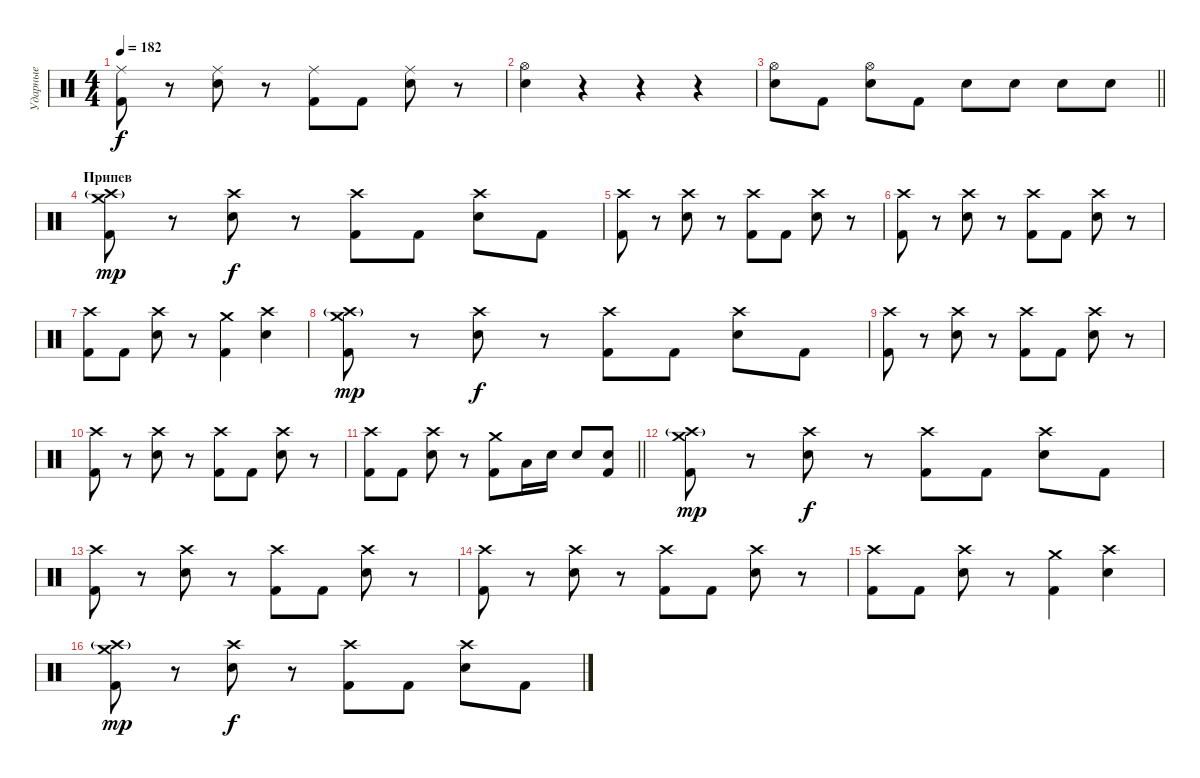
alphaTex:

\track ("Ударные" "Ударные") {instrument percussion}
\staff {score}
\articulation defaults
\ts (4 4)
\tempo 182
\clef neutral
\ks c
("Ride (middle)" "Kick (hit) 2").8{dy f} r.8 ("Ride (middle)" "Snare (hit) 2").8 r.8 ("Ride (middle)" "Kick (hit) 2").8 "Kick (hit) 2".8 ("Ride (middle)" "Snare (hit) 2").8 r.8 |
("Hi-Hat (open)" "Snare (hit) 2").4 r.4 r.4 r.4 |
\barLineRight lightlight
("Hi-Hat (open)" "Snare (hit) 2").8 "Kick (hit) 2".8 ("Hi-Hat (open)" "Snare (hit) 2").8 "Kick (hit) 2".8 "Snare (hit) 2".8 "Snare (hit) 2".8 "Snare (hit) 2".8 "Snare (hit) 2".8 |
\section ("" "Припев")
("Crash medium (hit)" "Crash high (hit)"{g} "Kick (hit) 2").8{dy mp} r.8 ("Crash high (hit)" "Snare (hit) 2").8{dy f} r.8 ("Crash high (hit)" "Kick (hit) 2").8 "Kick (hit) 2".8 ("Crash high (hit)" "Snare (hit) 2").8 "Kick (hit) 2".8 |
("Crash high (hit)" "Kick (hit) 2").8 r.8 ("Crash high (hit)" "Snare (hit) 2").8 r.8 ("Crash high (hit)" "Kick (hit) 2").8 "Kick (hit) 2".8 ("Crash high (hit)" "Snare (hit) 2").8 r.8 |
("Crash high (hit)" "Kick (hit) 2").8 r.8 ("Crash high (hit)" "Snare (hit) 2").8 r.8 ("Crash high (hit)" "Kick (hit) 2").8 "Kick (hit) 2".8 ("Crash high (hit)" "Snare (hit) 2").8 r.8 |
("Crash high (hit)" "Kick (hit) 2").8 "Kick (hit) 2".8 ("Crash high (hit)" "Snare (hit) 2").8 r.8 ("Crash medium (hit)" "Kick (hit) 2").4 ("Crash high (hit)" "Snare (hit) 2").4 |
("Crash medium (hit)" "Crash high (hit)"{g} "Kick (hit) 2").8{dy mp} r.8 ("Crash high (hit)" "Snare (hit) 2").8{dy f} r.8 ("Crash high (hit)" "Kick (hit) 2").8 "Kick (hit) 2".8 ("Crash high (hit)" "Snare (hit) 2").8 "Kick (hit) 2".8 |
("Crash high (hit)" "Kick (hit) 2").8 r.8 ("Crash high (hit)" "Snare (hit) 2").8 r.8 ("Crash high (hit)" "Kick (hit) 2").8 "Kick (hit) 2".8 ("Crash high (hit)" "Snare (hit) 2").8 r.8 |
("Crash high (hit)" "Kick (hit) 2").8 r.8 ("Crash high (hit)" "Snare (hit) 2").8 r.8 ("Crash high (hit)" "Kick (hit) 2").8 "Kick (hit) 2".8 ("Crash high (hit)" "Snare (hit) 2").8 r.8 |
\barLineRight lightlight
("Crash high (hit)" "Kick (hit) 2").8 "Kick (hit) 2".8 ("Crash high (hit)" "Snare (hit) 2").8 r.8 ("Crash medium (hit)" "Kick (hit) 2").8 "Low Tom (hit)".16 "Snare (hit) 2".16 "Snare (hit) 2".8 ("Snare (hit) 2" "Kick (hit) 2").8 |
("Crash medium (hit)" "Crash high (hit)"{g} "Kick (hit) 2").8{dy mp} r.8 ("Crash high (hit)" "Snare (hit) 2").8{dy f} r.8 ("Crash high (hit)" "Kick (hit) 2").8 "Kick (hit) 2".8 ("Crash high (hit)" "Snare (hit) 2").8 "Kick (hit) 2".8 |
("Crash high (hit)" "Kick (hit) 2").8 r.8 ("Crash high (hit)" "Snare (hit) 2").8 r.8 ("Crash high (hit)" "Kick (hit) 2").8 "Kick (hit) 2".8 ("Crash high (hit)" "Snare (hit) 2").8 r.8 |
("Crash high (hit)" "Kick (hit) 2").8 r.8 ("Crash high (hit)" "Snare (hit) 2").8 r.8 ("Crash high (hit)" "Kick (hit) 2").8 "Kick (hit) 2".8 ("Crash high (hit)" "Snare (hit) 2").8 r.8 |
("Crash high (hit)" "Kick (hit) 2").8 "Kick (hit) 2".8 ("Crash high (hit)" "Snare (hit) 2").8 r.8 ("Crash medium (hit)" "Kick (hit) 2").4 ("Crash high (hit)" "Snare (hit) 2").4 |
("Crash medium (hit)" "Crash high (hit)"{g} "Kick (hit) 2").8{dy mp} r.8 ("Crash high (hit)" "Snare (hit) 2").8{dy f} r.8 ("Crash high (hit)" "Kick (hit) 2").8 "Kick (hit) 2".8 ("Crash high (hit)" "Snare (hit) 2").8 "Kick (hit) 2".8
